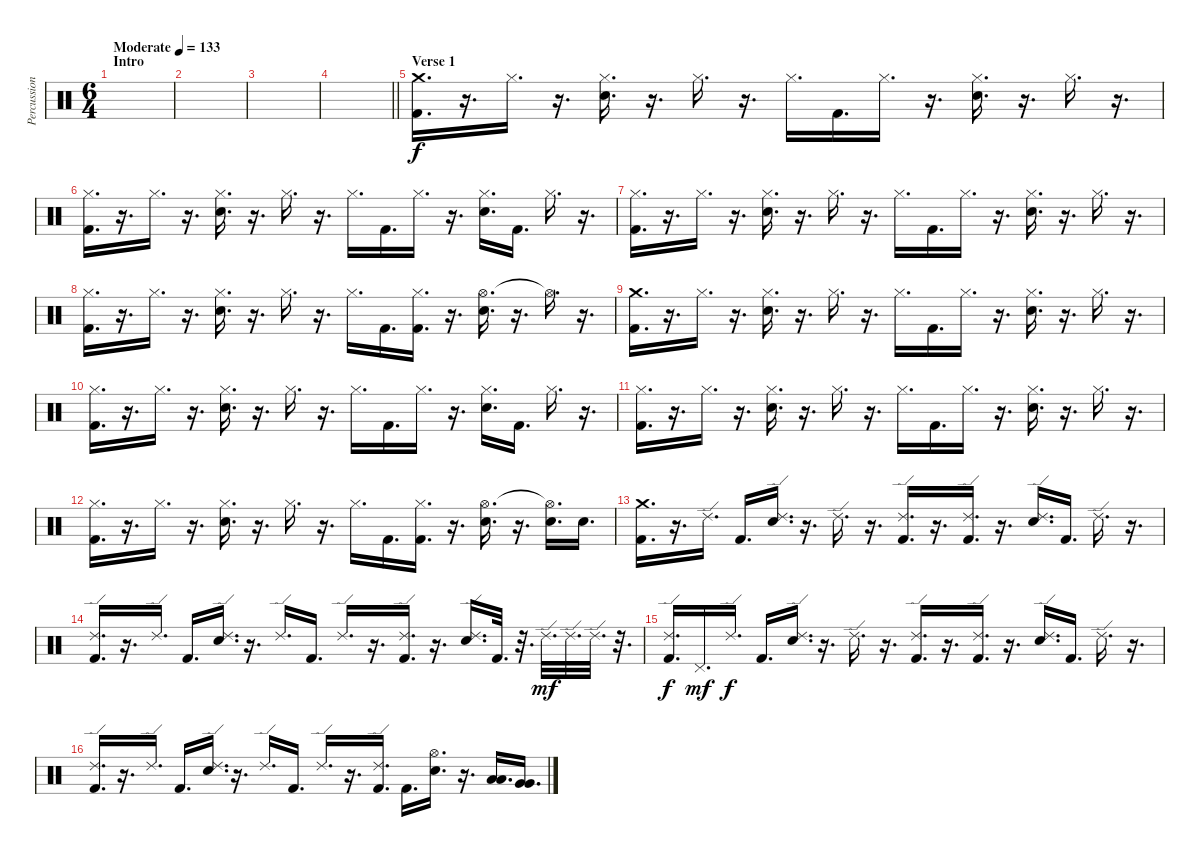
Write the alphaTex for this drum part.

\track ("Percussion" "Percussion") {instrument percussion}
\staff {score}
\articulation defaults
\ts (6 4)
\section ("" "Intro")
\tempo (133 "Moderate")
\clef neutral
\ks c
|
|
|
\barLineRight lightlight
|
\section ("" "Verse 1")
("Crash medium (hit)" "Kick (hit) 2").16{d} r.16{d} "Hi-Hat (closed)".16{d} r.16{d} ("Hi-Hat (closed)" "Electric Snare (hit)").16{d} r.16{d} "Hi-Hat (closed)".16{d} r.16{d} "Hi-Hat (closed)".16{d} "Kick (hit) 2".16{d} "Hi-Hat (closed)".16{d} r.16{d} ("Hi-Hat (closed)" "Electric Snare (hit)").16{d} r.16{d} "Hi-Hat (closed)".16{d} r.16{d} |
("Hi-Hat (closed)" "Kick (hit) 2").16{d} r.16{d} "Hi-Hat (closed)".16{d} r.16{d} ("Hi-Hat (closed)" "Electric Snare (hit)").16{d} r.16{d} "Hi-Hat (closed)".16{d} r.16{d} "Hi-Hat (closed)".16{d} "Kick (hit) 2".16{d} "Hi-Hat (closed)".16{d} r.16{d} ("Hi-Hat (closed)" "Electric Snare (hit)").16{d} "Kick (hit) 2".16{d} "Hi-Hat (closed)".16{d} r.16{d} |
("Hi-Hat (closed)" "Kick (hit) 2").16{d} r.16{d} "Hi-Hat (closed)".16{d} r.16{d} ("Hi-Hat (closed)" "Electric Snare (hit)").16{d} r.16{d} "Hi-Hat (closed)".16{d} r.16{d} "Hi-Hat (closed)".16{d} "Kick (hit) 2".16{d} "Hi-Hat (closed)".16{d} r.16{d} ("Hi-Hat (closed)" "Electric Snare (hit)").16{d} r.16{d} "Hi-Hat (closed)".16{d} r.16{d} |
("Hi-Hat (closed)" "Kick (hit) 2").16{d} r.16{d} "Hi-Hat (closed)".16{d} r.16{d} ("Hi-Hat (closed)" "Electric Snare (hit)").16{d} r.16{d} "Hi-Hat (closed)".16{d} r.16{d} "Hi-Hat (closed)".16{d} "Kick (hit) 2".16{d} ("Hi-Hat (closed)" "Kick (hit) 2").16{d} r.16{d} ("Hi-Hat (open)" "Electric Snare (hit)").16{d} r.16{d} "Hi-Hat (open)"{t}.16{d} r.16{d} |
("Crash medium (hit)" "Kick (hit) 2").16{d} r.16{d} "Hi-Hat (closed)".16{d} r.16{d} ("Hi-Hat (closed)" "Electric Snare (hit)").16{d} r.16{d} "Hi-Hat (closed)".16{d} r.16{d} "Hi-Hat (closed)".16{d} "Kick (hit) 2".16{d} "Hi-Hat (closed)".16{d} r.16{d} ("Hi-Hat (closed)" "Electric Snare (hit)").16{d} r.16{d} "Hi-Hat (closed)".16{d} r.16{d} |
("Hi-Hat (closed)" "Kick (hit) 2").16{d} r.16{d} "Hi-Hat (closed)".16{d} r.16{d} ("Hi-Hat (closed)" "Electric Snare (hit)").16{d} r.16{d} "Hi-Hat (closed)".16{d} r.16{d} "Hi-Hat (closed)".16{d} "Kick (hit) 2".16{d} "Hi-Hat (closed)".16{d} r.16{d} ("Hi-Hat (closed)" "Electric Snare (hit)").16{d} "Kick (hit) 2".16{d} "Hi-Hat (closed)".16{d} r.16{d} |
("Hi-Hat (closed)" "Kick (hit) 2").16{d} r.16{d} "Hi-Hat (closed)".16{d} r.16{d} ("Hi-Hat (closed)" "Electric Snare (hit)").16{d} r.16{d} "Hi-Hat (closed)".16{d} r.16{d} "Hi-Hat (closed)".16{d} "Kick (hit) 2".16{d} "Hi-Hat (closed)".16{d} r.16{d} ("Hi-Hat (closed)" "Electric Snare (hit)").16{d} r.16{d} "Hi-Hat (closed)".16{d} r.16{d} |
("Hi-Hat (closed)" "Kick (hit) 2").16{d} r.16{d} "Hi-Hat (closed)".16{d} r.16{d} ("Hi-Hat (closed)" "Electric Snare (hit)").16{d} r.16{d} "Hi-Hat (closed)".16{d} r.16{d} "Hi-Hat (closed)".16{d} "Kick (hit) 2".16{d} ("Hi-Hat (closed)" "Kick (hit) 2").16{d} r.16{d} ("Hi-Hat (open)" "Electric Snare (hit)").16{d} r.16{d} ("Hi-Hat (open)"{t} "Electric Snare (hit)").16{d} "Electric Snare (hit)".16{d} |
("Crash medium (hit)" "Kick (hit) 2").16{d} r.16{d} "Ride (edge) 2".16{d} "Kick (hit) 2".16{d} ("Ride (edge) 2" "Electric Snare (hit)").16{d} r.16{d} "Ride (edge) 2".16{d} r.16{d} ("Ride (edge) 2" "Kick (hit) 2").16{d} r.16{d} ("Ride (edge) 2" "Kick (hit) 2").16{d} r.16{d} ("Ride (edge) 2" "Electric Snare (hit)").16{d} "Kick (hit) 2".16{d} "Ride (edge) 2".16{d} r.16{d} |
("Ride (edge) 2" "Kick (hit) 2").16{d} r.16{d} "Ride (edge) 2".16{d} "Kick (hit) 2".16{d} ("Ride (edge) 2" "Electric Snare (hit)").16{d} r.16{d} "Ride (edge) 2".16{d} "Kick (hit) 2".16{d} "Ride (edge) 2".16{d} r.16{d} ("Ride (edge) 2" "Kick (hit) 2").16{d} r.16{d} ("Ride (edge) 2" "Electric Snare (hit)").16{d} "Kick (hit) 2".32{d} r.32{d} "Ride (edge) 2".32{d dy mf} "Ride (edge) 2".32{d} "Ride (edge) 2".32{d} r.32{d} |
("Ride (edge) 2" "Kick (hit) 2").16{d dy f} "Pedal Hi-Hat (hit)".16{d dy mf} "Ride (edge) 2".16{d dy f} "Kick (hit) 2".16{d} ("Ride (edge) 2" "Electric Snare (hit)").16{d} r.16{d} "Ride (edge) 2".16{d} r.16{d} ("Ride (edge) 2" "Kick (hit) 2").16{d} r.16{d} ("Ride (edge) 2" "Kick (hit) 2").16{d} r.16{d} ("Ride (edge) 2" "Electric Snare (hit)").16{d} "Kick (hit) 2".16{d} "Ride (edge) 2".16{d} r.16{d} |
("Ride (edge) 2" "Kick (hit) 2").16{d} r.16{d} "Ride (edge) 2".16{d} "Kick (hit) 2".16{d} ("Ride (edge) 2" "Electric Snare (hit)").16{d} r.16{d} "Ride (edge) 2".16{d} "Kick (hit) 2".16{d} "Ride (edge) 2".16{d} r.16{d} ("Ride (edge) 2" "Kick (hit) 2").16{d} "Kick (hit) 2".16{d} ("Hi-Hat (open)" "Electric Snare (hit)").16{d} r.16{d} ("Low Tom (hit)" "Low Tom (hit)").16{d} ("Very Low Tom (hit)" "Very Low Tom (hit)").16{d}
